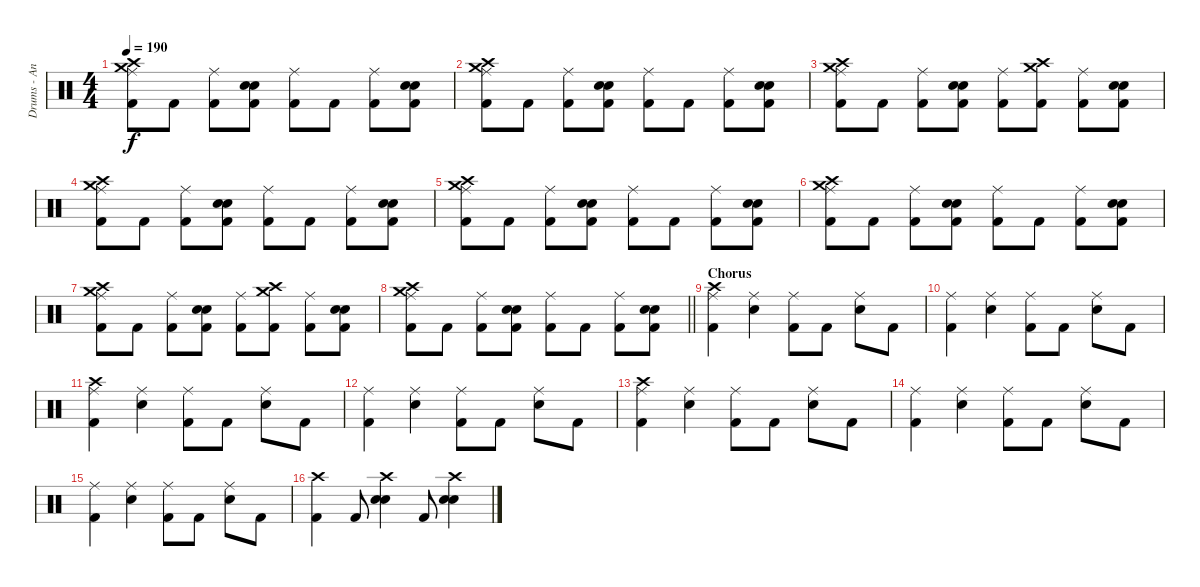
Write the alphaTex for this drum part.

\track ("Drums - Anders Johansson" "Drums - An") {instrument percussion}
\staff {score}
\articulation defaults
\ts (4 4)
\tempo 190
\clef neutral
\ks c
("Ride (middle)" "Kick (hit) 2" "Crash medium (hit)" "Crash high (hit)").8{dy f} "Kick (hit) 2".8 ("Ride (middle)" "Kick (hit) 2").8 ("Electric Snare (hit)" "Snare (hit) 2" "Kick (hit) 2").8 ("Ride (middle)" "Kick (hit) 2").8 "Kick (hit) 2".8 ("Ride (middle)" "Kick (hit) 2").8 ("Electric Snare (hit)" "Snare (hit) 2" "Kick (hit) 2").8 |
("Ride (middle)" "Kick (hit) 2" "Crash medium (hit)" "Crash high (hit)").8 "Kick (hit) 2".8 ("Ride (middle)" "Kick (hit) 2").8 ("Electric Snare (hit)" "Snare (hit) 2" "Kick (hit) 2").8 ("Ride (middle)" "Kick (hit) 2").8 "Kick (hit) 2".8 ("Ride (middle)" "Kick (hit) 2").8 ("Electric Snare (hit)" "Snare (hit) 2" "Kick (hit) 2").8 |
("Ride (middle)" "Kick (hit) 2" "Crash medium (hit)" "Crash high (hit)").8 "Kick (hit) 2".8 ("Ride (middle)" "Kick (hit) 2").8 ("Electric Snare (hit)" "Snare (hit) 2" "Kick (hit) 2").8 ("Ride (middle)" "Kick (hit) 2").8 ("Kick (hit) 2" "Crash medium (hit)" "Crash high (hit)").8 ("Ride (middle)" "Kick (hit) 2").8 ("Electric Snare (hit)" "Snare (hit) 2" "Kick (hit) 2").8 |
("Ride (middle)" "Kick (hit) 2" "Crash medium (hit)" "Crash high (hit)").8 "Kick (hit) 2".8 ("Ride (middle)" "Kick (hit) 2").8 ("Electric Snare (hit)" "Snare (hit) 2" "Kick (hit) 2").8 ("Ride (middle)" "Kick (hit) 2").8 "Kick (hit) 2".8 ("Ride (middle)" "Kick (hit) 2").8 ("Electric Snare (hit)" "Snare (hit) 2" "Kick (hit) 2").8 |
("Ride (middle)" "Kick (hit) 2" "Crash medium (hit)" "Crash high (hit)").8 "Kick (hit) 2".8 ("Ride (middle)" "Kick (hit) 2").8 ("Electric Snare (hit)" "Snare (hit) 2" "Kick (hit) 2").8 ("Ride (middle)" "Kick (hit) 2").8 "Kick (hit) 2".8 ("Ride (middle)" "Kick (hit) 2").8 ("Electric Snare (hit)" "Snare (hit) 2" "Kick (hit) 2").8 |
("Ride (middle)" "Kick (hit) 2" "Crash medium (hit)" "Crash high (hit)").8 "Kick (hit) 2".8 ("Ride (middle)" "Kick (hit) 2").8 ("Electric Snare (hit)" "Snare (hit) 2" "Kick (hit) 2").8 ("Ride (middle)" "Kick (hit) 2").8 "Kick (hit) 2".8 ("Ride (middle)" "Kick (hit) 2").8 ("Electric Snare (hit)" "Snare (hit) 2" "Kick (hit) 2").8 |
("Ride (middle)" "Kick (hit) 2" "Crash medium (hit)" "Crash high (hit)").8 "Kick (hit) 2".8 ("Ride (middle)" "Kick (hit) 2").8 ("Electric Snare (hit)" "Snare (hit) 2" "Kick (hit) 2").8 ("Ride (middle)" "Kick (hit) 2").8 ("Kick (hit) 2" "Crash medium (hit)" "Crash high (hit)").8 ("Ride (middle)" "Kick (hit) 2").8 ("Electric Snare (hit)" "Snare (hit) 2" "Kick (hit) 2").8 |
\barLineRight lightlight
("Ride (middle)" "Kick (hit) 2" "Crash medium (hit)" "Crash high (hit)").8 "Kick (hit) 2".8 ("Ride (middle)" "Kick (hit) 2").8 ("Electric Snare (hit)" "Snare (hit) 2" "Kick (hit) 2").8 ("Ride (middle)" "Kick (hit) 2").8 "Kick (hit) 2".8 ("Ride (middle)" "Kick (hit) 2").8 ("Electric Snare (hit)" "Snare (hit) 2" "Kick (hit) 2").8 |
\section ("" "Chorus")
("Ride (middle)" "Kick (hit) 2" "Crash high (hit)").4 ("Ride (middle)" "Snare (hit) 2").4 ("Ride (middle)" "Kick (hit) 2").8 "Kick (hit) 2".8 ("Ride (middle)" "Snare (hit) 2").8 "Kick (hit) 2".8 |
("Ride (middle)" "Kick (hit) 2").4 ("Ride (middle)" "Snare (hit) 2").4 ("Ride (middle)" "Kick (hit) 2").8 "Kick (hit) 2".8 ("Ride (middle)" "Snare (hit) 2").8 "Kick (hit) 2".8 |
("Ride (middle)" "Kick (hit) 2" "Crash high (hit)").4 ("Ride (middle)" "Snare (hit) 2").4 ("Ride (middle)" "Kick (hit) 2").8 "Kick (hit) 2".8 ("Ride (middle)" "Snare (hit) 2").8 "Kick (hit) 2".8 |
("Ride (middle)" "Kick (hit) 2").4 ("Ride (middle)" "Snare (hit) 2").4 ("Ride (middle)" "Kick (hit) 2").8 "Kick (hit) 2".8 ("Ride (middle)" "Snare (hit) 2").8 "Kick (hit) 2".8 |
("Ride (middle)" "Kick (hit) 2" "Crash high (hit)").4 ("Ride (middle)" "Snare (hit) 2").4 ("Ride (middle)" "Kick (hit) 2").8 "Kick (hit) 2".8 ("Ride (middle)" "Snare (hit) 2").8 "Kick (hit) 2".8 |
("Ride (middle)" "Kick (hit) 2").4 ("Ride (middle)" "Snare (hit) 2").4 ("Ride (middle)" "Kick (hit) 2").8 "Kick (hit) 2".8 ("Ride (middle)" "Snare (hit) 2").8 "Kick (hit) 2".8 |
("Ride (middle)" "Kick (hit) 2").4 ("Ride (middle)" "Snare (hit) 2").4 ("Ride (middle)" "Kick (hit) 2").8 "Kick (hit) 2".8 ("Ride (middle)" "Snare (hit) 2").8 "Kick (hit) 2".8 |
("Kick (hit) 2" "Crash high (hit)").4 "Kick (hit) 2".8 ("Electric Snare (hit)" "Snare (hit) 2" "Crash high (hit)").4 "Kick (hit) 2".8 ("Electric Snare (hit)" "Snare (hit) 2" "Crash high (hit)").4
